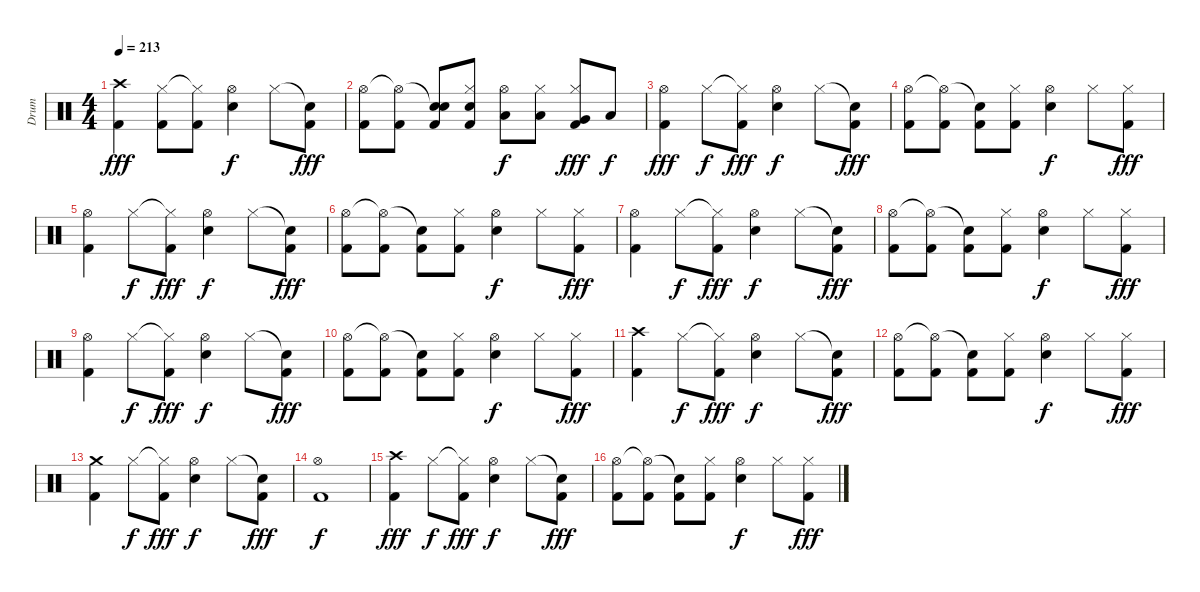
\track ("Drum" "Drum") {instrument percussion}
\staff {score}
\articulation defaults
\ts (4 4)
\tempo 213
\clef neutral
\ks c
("Crash high (hit)" "Kick (hit) 2").4{dy fff} ("Hi-Hat (closed)" "Kick (hit) 2").8 ("Hi-Hat (closed)"{t} "Kick (hit) 2").8 ("Hi-Hat (open)" "Snare (hit) 2").4{dy f} "Hi-Hat (closed)".8 ("Snare (hit)"{t} "Kick (hit) 2").8{dy fff} |
("Hi-Hat (open)" "Kick (hit) 2").8 ("Hi-Hat (open)"{t} "Kick (hit) 2").8 ("Snare (hit)"{t} "Snare (hit) 2" "Kick (hit) 2").8 ("Hi-Hat (closed)" "Snare (hit) 2" "Kick (hit) 2").8 ("Hi-Hat (open)" "Low Tom (hit)").8{dy f} ("Hi-Hat (closed)" "Low Tom (hit)").8 ("Hi-Hat (closed)" "Very Low Tom (hit)" "Kick (hit) 2").8{dy fff} "Low Floor Tom (hit)".8{dy f} |
("Hi-Hat (open)" "Kick (hit) 2").4{dy fff} "Hi-Hat (closed)".8{dy f} ("Hi-Hat (closed)"{t} "Kick (hit) 2").8{dy fff} ("Hi-Hat (open)" "Snare (hit) 2").4{dy f} "Hi-Hat (closed)".8 ("Snare (hit)"{t} "Kick (hit) 2").8{dy fff} |
("Hi-Hat (open)" "Kick (hit) 2").8 ("Hi-Hat (open)"{t} "Kick (hit) 2").8 ("Snare (hit)"{t} "Kick (hit) 2").8 ("Hi-Hat (closed)" "Kick (hit) 2").8 ("Hi-Hat (open)" "Snare (hit) 2").4{dy f} "Hi-Hat (closed)".8 ("Hi-Hat (closed)" "Kick (hit) 2").8{dy fff} |
("Hi-Hat (open)" "Kick (hit) 2").4 "Hi-Hat (closed)".8{dy f} ("Hi-Hat (closed)"{t} "Kick (hit) 2").8{dy fff} ("Hi-Hat (open)" "Snare (hit) 2").4{dy f} "Hi-Hat (closed)".8 ("Snare (hit)"{t} "Kick (hit) 2").8{dy fff} |
("Hi-Hat (open)" "Kick (hit) 2").8 ("Hi-Hat (open)"{t} "Kick (hit) 2").8 ("Snare (hit)"{t} "Kick (hit) 2").8 ("Hi-Hat (closed)" "Kick (hit) 2").8 ("Hi-Hat (open)" "Snare (hit) 2").4{dy f} "Hi-Hat (closed)".8 ("Hi-Hat (closed)" "Kick (hit) 2").8{dy fff} |
("Hi-Hat (open)" "Kick (hit) 2").4 "Hi-Hat (closed)".8{dy f} ("Hi-Hat (closed)"{t} "Kick (hit) 2").8{dy fff} ("Hi-Hat (open)" "Snare (hit) 2").4{dy f} "Hi-Hat (closed)".8 ("Snare (hit)"{t} "Kick (hit) 2").8{dy fff} |
("Hi-Hat (open)" "Kick (hit) 2").8 ("Hi-Hat (open)"{t} "Kick (hit) 2").8 ("Snare (hit)"{t} "Kick (hit) 2").8 ("Hi-Hat (closed)" "Kick (hit) 2").8 ("Hi-Hat (open)" "Snare (hit) 2").4{dy f} "Hi-Hat (closed)".8 ("Hi-Hat (closed)" "Kick (hit) 2").8{dy fff} |
("Hi-Hat (open)" "Kick (hit) 2").4 "Hi-Hat (closed)".8{dy f} ("Hi-Hat (closed)"{t} "Kick (hit) 2").8{dy fff} ("Hi-Hat (open)" "Snare (hit) 2").4{dy f} "Hi-Hat (closed)".8 ("Snare (hit)"{t} "Kick (hit) 2").8{dy fff} |
("Hi-Hat (open)" "Kick (hit) 2").8 ("Hi-Hat (open)"{t} "Kick (hit) 2").8 ("Snare (hit)"{t} "Kick (hit) 2").8 ("Hi-Hat (closed)" "Kick (hit) 2").8 ("Hi-Hat (open)" "Snare (hit) 2").4{dy f} "Hi-Hat (closed)".8 ("Hi-Hat (closed)" "Kick (hit) 2").8{dy fff} |
("Crash high (hit)" "Kick (hit) 2").4 "Hi-Hat (closed)".8{dy f} ("Hi-Hat (closed)"{t} "Kick (hit) 2").8{dy fff} ("Hi-Hat (open)" "Snare (hit) 2").4{dy f} "Hi-Hat (closed)".8 ("Snare (hit)"{t} "Kick (hit) 2").8{dy fff} |
("Hi-Hat (open)" "Kick (hit) 2").8 ("Hi-Hat (open)"{t} "Kick (hit) 2").8 ("Snare (hit)"{t} "Kick (hit) 2").8 ("Hi-Hat (closed)" "Kick (hit) 2").8 ("Hi-Hat (open)" "Snare (hit) 2").4{dy f} "Hi-Hat (closed)".8 ("Hi-Hat (closed)" "Kick (hit) 2").8{dy fff} |
("Crash medium (hit)" "Kick (hit) 2").4 "Hi-Hat (closed)".8{dy f} ("Hi-Hat (closed)"{t} "Kick (hit) 2").8{dy fff} ("Hi-Hat (open)" "Snare (hit) 2").4{dy f} "Hi-Hat (closed)".8 ("Snare (hit)"{t} "Kick (hit) 2").8{dy fff} |
("Hi-Hat (open)" "Kick (hit) 2").1{dy f} |
("Crash high (hit)" "Kick (hit) 2").4{dy fff} "Hi-Hat (closed)".8{dy f} ("Hi-Hat (closed)"{t} "Kick (hit) 2").8{dy fff} ("Hi-Hat (open)" "Snare (hit) 2").4{dy f} "Hi-Hat (closed)".8 ("Snare (hit)"{t} "Kick (hit) 2").8{dy fff} |
("Hi-Hat (open)" "Kick (hit) 2").8 ("Hi-Hat (open)"{t} "Kick (hit) 2").8 ("Snare (hit)"{t} "Kick (hit) 2").8 ("Hi-Hat (closed)" "Kick (hit) 2").8 ("Hi-Hat (open)" "Snare (hit) 2").4{dy f} "Hi-Hat (closed)".8 ("Hi-Hat (closed)" "Kick (hit) 2").8{dy fff}
